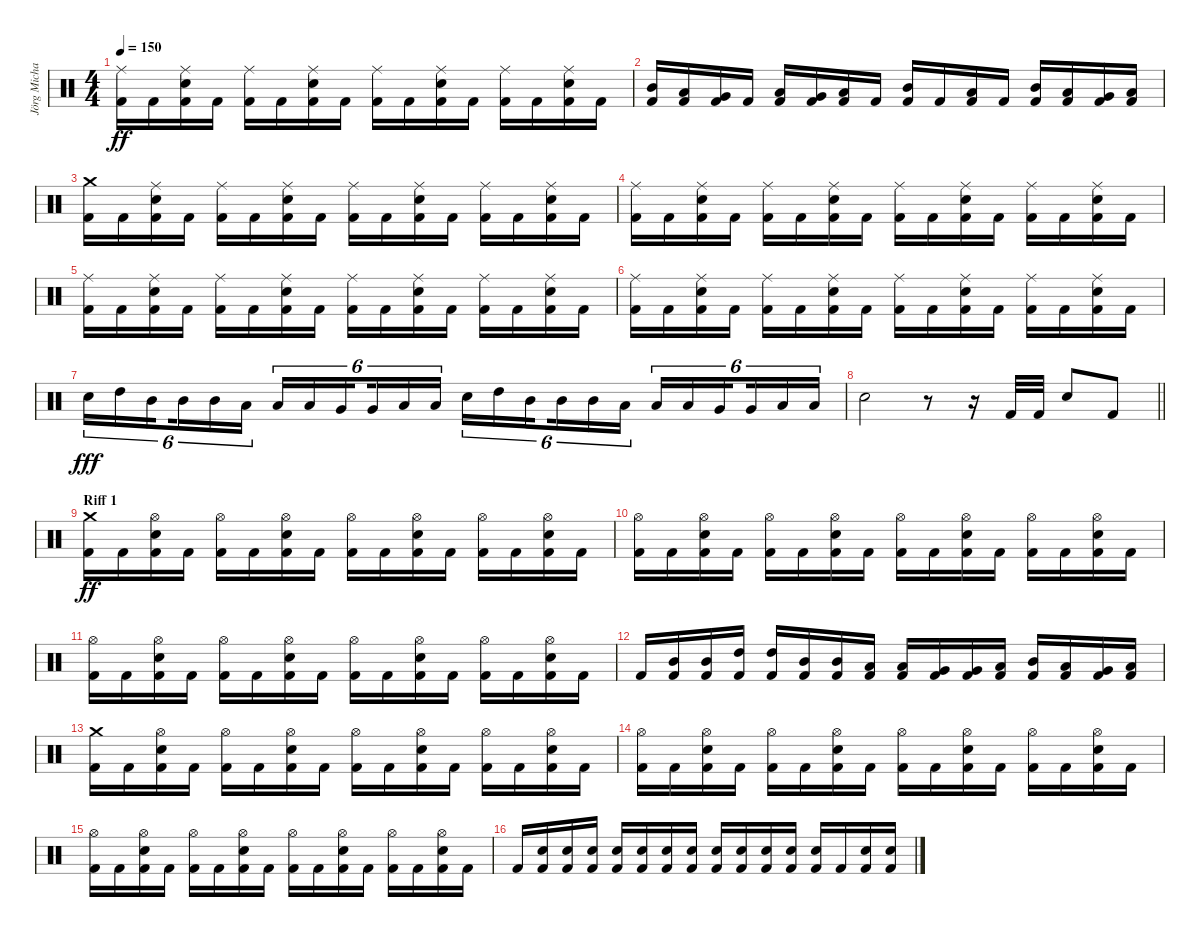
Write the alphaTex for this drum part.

\track ("Jörg Michael" "Jörg Micha") {instrument percussion}
\staff {score}
\articulation defaults
\ts (4 4)
\tempo 150
\clef neutral
\ks c
("Ride (middle)" "Kick (hit) 2").16{dy ff} "Kick (hit) 2".16 ("Ride (middle)" "Electric Snare (hit)" "Kick (hit) 2").16 "Kick (hit) 2".16 ("Ride (middle)" "Kick (hit) 2").16 "Kick (hit) 2".16 ("Ride (middle)" "Electric Snare (hit)" "Kick (hit) 2").16 "Kick (hit) 2".16 ("Ride (middle)" "Kick (hit) 2").16 "Kick (hit) 2".16 ("Ride (middle)" "Electric Snare (hit)" "Kick (hit) 2").16 "Kick (hit) 2".16 ("Ride (middle)" "Kick (hit) 2").16 "Kick (hit) 2".16 ("Ride (middle)" "Electric Snare (hit)" "Kick (hit) 2").16 "Kick (hit) 2".16 |
("Mid Tom (hit)" "Kick (hit) 2").16 ("Low Tom (hit)" "Kick (hit) 2").16 ("Very Low Tom (hit)" "Kick (hit) 2").16 "Kick (hit) 2".16 ("Low Tom (hit)" "Kick (hit) 2").16 ("Very Low Tom (hit)" "Kick (hit) 2").16 ("Low Floor Tom (hit)" "Kick (hit) 2").16 "Kick (hit) 2".16 ("Mid Tom (hit)" "Kick (hit) 2").16 "Kick (hit) 2".16 ("Low Tom (hit)" "Kick (hit) 2").16 "Kick (hit) 2".16 ("Mid Tom (hit)" "Kick (hit) 2").16 ("Low Tom (hit)" "Kick (hit) 2").16 ("Very Low Tom (hit)" "Kick (hit) 2").16 ("Low Floor Tom (hit)" "Kick (hit) 2").16 |
("Crash medium (hit)" "Kick (hit) 2").16 "Kick (hit) 2".16 ("Ride (middle)" "Electric Snare (hit)" "Kick (hit) 2").16 "Kick (hit) 2".16 ("Ride (middle)" "Kick (hit) 2").16 "Kick (hit) 2".16 ("Ride (middle)" "Electric Snare (hit)" "Kick (hit) 2").16 "Kick (hit) 2".16 ("Ride (middle)" "Kick (hit) 2").16 "Kick (hit) 2".16 ("Ride (middle)" "Electric Snare (hit)" "Kick (hit) 2").16 "Kick (hit) 2".16 ("Ride (middle)" "Kick (hit) 2").16 "Kick (hit) 2".16 ("Ride (middle)" "Electric Snare (hit)" "Kick (hit) 2").16 "Kick (hit) 2".16 |
("Ride (middle)" "Kick (hit) 2").16 "Kick (hit) 2".16 ("Ride (middle)" "Electric Snare (hit)" "Kick (hit) 2").16 "Kick (hit) 2".16 ("Ride (middle)" "Kick (hit) 2").16 "Kick (hit) 2".16 ("Ride (middle)" "Electric Snare (hit)" "Kick (hit) 2").16 "Kick (hit) 2".16 ("Ride (middle)" "Kick (hit) 2").16 "Kick (hit) 2".16 ("Ride (middle)" "Electric Snare (hit)" "Kick (hit) 2").16 "Kick (hit) 2".16 ("Ride (middle)" "Kick (hit) 2").16 "Kick (hit) 2".16 ("Ride (middle)" "Electric Snare (hit)" "Kick (hit) 2").16 "Kick (hit) 2".16 |
("Ride (middle)" "Kick (hit) 2").16 "Kick (hit) 2".16 ("Ride (middle)" "Electric Snare (hit)" "Kick (hit) 2").16 "Kick (hit) 2".16 ("Ride (middle)" "Kick (hit) 2").16 "Kick (hit) 2".16 ("Ride (middle)" "Electric Snare (hit)" "Kick (hit) 2").16 "Kick (hit) 2".16 ("Ride (middle)" "Kick (hit) 2").16 "Kick (hit) 2".16 ("Ride (middle)" "Electric Snare (hit)" "Kick (hit) 2").16 "Kick (hit) 2".16 ("Ride (middle)" "Kick (hit) 2").16 "Kick (hit) 2".16 ("Ride (middle)" "Electric Snare (hit)" "Kick (hit) 2").16 "Kick (hit) 2".16 |
("Ride (middle)" "Kick (hit) 2").16 "Kick (hit) 2".16 ("Ride (middle)" "Electric Snare (hit)" "Kick (hit) 2").16 "Kick (hit) 2".16 ("Ride (middle)" "Kick (hit) 2").16 "Kick (hit) 2".16 ("Ride (middle)" "Electric Snare (hit)" "Kick (hit) 2").16 "Kick (hit) 2".16 ("Ride (middle)" "Kick (hit) 2").16 "Kick (hit) 2".16 ("Ride (middle)" "Electric Snare (hit)" "Kick (hit) 2").16 "Kick (hit) 2".16 ("Ride (middle)" "Kick (hit) 2").16 "Kick (hit) 2".16 ("Ride (middle)" "Electric Snare (hit)" "Kick (hit) 2").16 "Kick (hit) 2".16 |
"Electric Snare (hit)".16{tu (6 4) dy fff} "High Tom (hit)".16{tu (6 4)} "Mid Tom (hit)".16{tu (6 4) beam splitsecondary} "Mid Tom (hit)".16{tu (6 4)} "Mid Tom (hit)".16{tu (6 4)} "Low Tom (hit)".16{tu (6 4)} "Low Tom (hit)".16{tu (6 4)} "Low Tom (hit)".16{tu (6 4)} "Very Low Tom (hit)".16{tu (6 4) beam splitsecondary} "Very Low Tom (hit)".16{tu (6 4)} "Low Floor Tom (hit)".16{tu (6 4)} "Low Floor Tom (hit)".16{tu (6 4)} "Electric Snare (hit)".16{tu (6 4)} "High Tom (hit)".16{tu (6 4)} "Mid Tom (hit)".16{tu (6 4) beam splitsecondary} "Mid Tom (hit)".16{tu (6 4)} "Mid Tom (hit)".16{tu (6 4)} "Low Tom (hit)".16{tu (6 4)} "Low Tom (hit)".16{tu (6 4)} "Low Tom (hit)".16{tu (6 4)} "Very Low Tom (hit)".16{tu (6 4) beam splitsecondary} "Very Low Tom (hit)".16{tu (6 4)} "Low Floor Tom (hit)".16{tu (6 4)} "Low Floor Tom (hit)".16{tu (6 4)} |
\barLineRight lightlight "Electric Snare (hit)".2
r.8 r.16 "Kick (hit) 2".32 "Kick (hit) 2".32 "Electric Snare (hit)".8 "Kick (hit) 2".8 |
\section ("" "Riff 1")
("Crash medium (hit)" "Kick (hit) 2").16{dy ff} "Kick (hit) 2".16 ("Hi-Hat (open)" "Electric Snare (hit)" "Kick (hit) 2").16 "Kick (hit) 2".16 ("Hi-Hat (open)" "Kick (hit) 2").16 "Kick (hit) 2".16 ("Hi-Hat (open)" "Electric Snare (hit)" "Kick (hit) 2").16 "Kick (hit) 2".16 ("Hi-Hat (open)" "Kick (hit) 2").16 "Kick (hit) 2".16 ("Hi-Hat (open)" "Electric Snare (hit)" "Kick (hit) 2").16 "Kick (hit) 2".16 ("Hi-Hat (open)" "Kick (hit) 2").16 "Kick (hit) 2".16 ("Hi-Hat (open)" "Electric Snare (hit)" "Kick (hit) 2").16 "Kick (hit) 2".16 |
("Hi-Hat (open)" "Kick (hit) 2").16 "Kick (hit) 2".16 ("Hi-Hat (open)" "Electric Snare (hit)" "Kick (hit) 2").16 "Kick (hit) 2".16 ("Hi-Hat (open)" "Kick (hit) 2").16 "Kick (hit) 2".16 ("Hi-Hat (open)" "Electric Snare (hit)" "Kick (hit) 2").16 "Kick (hit) 2".16 ("Hi-Hat (open)" "Kick (hit) 2").16 "Kick (hit) 2".16 ("Hi-Hat (open)" "Electric Snare (hit)" "Kick (hit) 2").16 "Kick (hit) 2".16 ("Hi-Hat (open)" "Kick (hit) 2").16 "Kick (hit) 2".16 ("Hi-Hat (open)" "Electric Snare (hit)" "Kick (hit) 2").16 "Kick (hit) 2".16 |
("Hi-Hat (open)" "Kick (hit) 2").16 "Kick (hit) 2".16 ("Hi-Hat (open)" "Electric Snare (hit)" "Kick (hit) 2").16 "Kick (hit) 2".16 ("Hi-Hat (open)" "Kick (hit) 2").16 "Kick (hit) 2".16 ("Hi-Hat (open)" "Electric Snare (hit)" "Kick (hit) 2").16 "Kick (hit) 2".16 ("Hi-Hat (open)" "Kick (hit) 2").16 "Kick (hit) 2".16 ("Hi-Hat (open)" "Electric Snare (hit)" "Kick (hit) 2").16 "Kick (hit) 2".16 ("Hi-Hat (open)" "Kick (hit) 2").16 "Kick (hit) 2".16 ("Hi-Hat (open)" "Electric Snare (hit)" "Kick (hit) 2").16 "Kick (hit) 2".16 |
"Kick (hit) 2".16 ("Mid Tom (hit)" "Kick (hit) 2").16 ("Mid Tom (hit)" "Kick (hit) 2").16 ("High Tom (hit)" "Kick (hit) 2").16 ("High Tom (hit)" "Kick (hit) 2").16 ("Mid Tom (hit)" "Kick (hit) 2").16 ("Mid Tom (hit)" "Kick (hit) 2").16 ("Low Tom (hit)" "Kick (hit) 2").16 ("Low Tom (hit)" "Kick (hit) 2").16 ("Very Low Tom (hit)" "Kick (hit) 2").16 ("Very Low Tom (hit)" "Kick (hit) 2").16 ("Low Tom (hit)" "Kick (hit) 2").16 ("Mid Tom (hit)" "Kick (hit) 2").16 ("Low Tom (hit)" "Kick (hit) 2").16 ("Very Low Tom (hit)" "Kick (hit) 2").16 ("Low Floor Tom (hit)" "Kick (hit) 2").16 |
("Crash medium (hit)" "Kick (hit) 2").16 "Kick (hit) 2".16 ("Hi-Hat (open)" "Electric Snare (hit)" "Kick (hit) 2").16 "Kick (hit) 2".16 ("Hi-Hat (open)" "Kick (hit) 2").16 "Kick (hit) 2".16 ("Hi-Hat (open)" "Electric Snare (hit)" "Kick (hit) 2").16 "Kick (hit) 2".16 ("Hi-Hat (open)" "Kick (hit) 2").16 "Kick (hit) 2".16 ("Hi-Hat (open)" "Electric Snare (hit)" "Kick (hit) 2").16 "Kick (hit) 2".16 ("Hi-Hat (open)" "Kick (hit) 2").16 "Kick (hit) 2".16 ("Hi-Hat (open)" "Electric Snare (hit)" "Kick (hit) 2").16 "Kick (hit) 2".16 |
("Hi-Hat (open)" "Kick (hit) 2").16 "Kick (hit) 2".16 ("Hi-Hat (open)" "Electric Snare (hit)" "Kick (hit) 2").16 "Kick (hit) 2".16 ("Hi-Hat (open)" "Kick (hit) 2").16 "Kick (hit) 2".16 ("Hi-Hat (open)" "Electric Snare (hit)" "Kick (hit) 2").16 "Kick (hit) 2".16 ("Hi-Hat (open)" "Kick (hit) 2").16 "Kick (hit) 2".16 ("Hi-Hat (open)" "Electric Snare (hit)" "Kick (hit) 2").16 "Kick (hit) 2".16 ("Hi-Hat (open)" "Kick (hit) 2").16 "Kick (hit) 2".16 ("Hi-Hat (open)" "Electric Snare (hit)" "Kick (hit) 2").16 "Kick (hit) 2".16 |
("Hi-Hat (open)" "Kick (hit) 2").16 "Kick (hit) 2".16 ("Hi-Hat (open)" "Electric Snare (hit)" "Kick (hit) 2").16 "Kick (hit) 2".16 ("Hi-Hat (open)" "Kick (hit) 2").16 "Kick (hit) 2".16 ("Hi-Hat (open)" "Electric Snare (hit)" "Kick (hit) 2").16 "Kick (hit) 2".16 ("Hi-Hat (open)" "Kick (hit) 2").16 "Kick (hit) 2".16 ("Hi-Hat (open)" "Electric Snare (hit)" "Kick (hit) 2").16 "Kick (hit) 2".16 ("Hi-Hat (open)" "Kick (hit) 2").16 "Kick (hit) 2".16 ("Hi-Hat (open)" "Electric Snare (hit)" "Kick (hit) 2").16 "Kick (hit) 2".16 |
"Kick (hit) 2".16 ("Electric Snare (hit)" "Kick (hit) 2").16 ("Electric Snare (hit)" "Kick (hit) 2").16 ("Electric Snare (hit)" "Kick (hit) 2").16 ("Electric Snare (hit)" "Kick (hit) 2").16 ("Electric Snare (hit)" "Kick (hit) 2").16 ("Electric Snare (hit)" "Kick (hit) 2").16 ("Electric Snare (hit)" "Kick (hit) 2").16 ("Electric Snare (hit)" "Kick (hit) 2").16 ("Electric Snare (hit)" "Kick (hit) 2").16 ("Electric Snare (hit)" "Kick (hit) 2").16 ("Electric Snare (hit)" "Kick (hit) 2").16 ("Electric Snare (hit)" "Kick (hit) 2").16 "Kick (hit) 2".16 ("Electric Snare (hit)" "Kick (hit) 2").16 ("Electric Snare (hit)" "Kick (hit) 2").16
